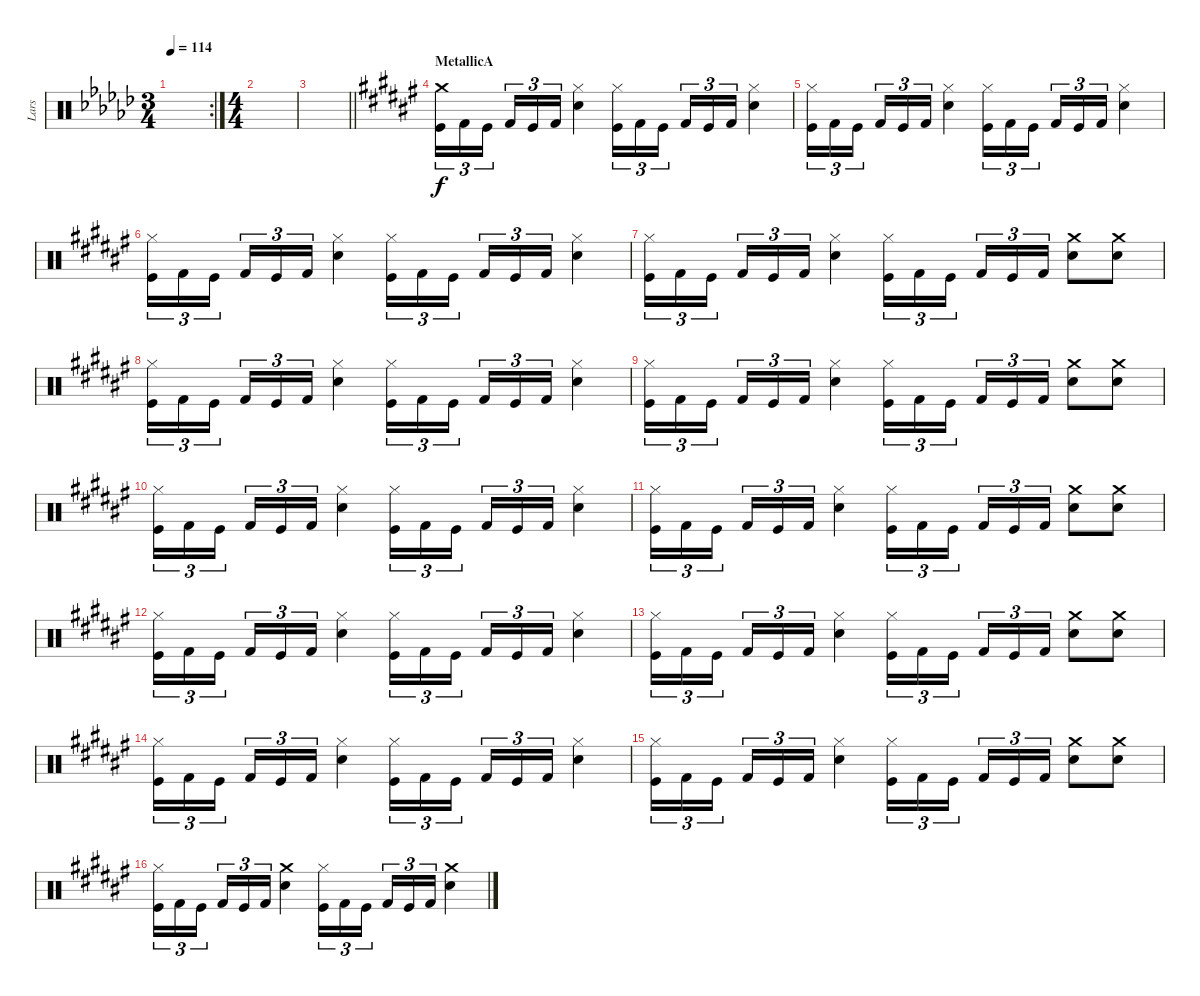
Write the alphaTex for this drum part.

\track ("Lars" "Lars") {instrument percussion}
\staff {score}
\articulation defaults
\rc 2
\ts (3 4)
\tempo 114
\clef neutral
\ks gb
|
\ts (4 4)
|
\barLineRight lightlight
|
\section ("" "MetallicA")
\ks f#
("Crash medium (hit)" "Kick (hit)").16{tu (3 2)} "Kick (hit) 2".16{tu (3 2)} "Kick (hit)".16{tu (3 2) beam splitsecondary} "Kick (hit) 2".16{tu (3 2)} "Kick (hit)".16{tu (3 2)} "Kick (hit) 2".16{tu (3 2)} ("Snare (hit) 2" "Hi-Hat (closed)").4 ("Hi-Hat (closed)" "Kick (hit)").16{tu (3 2)} "Kick (hit) 2".16{tu (3 2)} "Kick (hit)".16{tu (3 2) beam splitsecondary} "Kick (hit) 2".16{tu (3 2)} "Kick (hit)".16{tu (3 2)} "Kick (hit) 2".16{tu (3 2)} ("Snare (hit) 2" "Hi-Hat (closed)").4 |
("Hi-Hat (closed)" "Kick (hit)").16{tu (3 2)} "Kick (hit) 2".16{tu (3 2)} "Kick (hit)".16{tu (3 2) beam splitsecondary} "Kick (hit) 2".16{tu (3 2)} "Kick (hit)".16{tu (3 2)} "Kick (hit) 2".16{tu (3 2)} ("Snare (hit) 2" "Hi-Hat (closed)").4 ("Hi-Hat (closed)" "Kick (hit)").16{tu (3 2)} "Kick (hit) 2".16{tu (3 2)} "Kick (hit)".16{tu (3 2) beam splitsecondary} "Kick (hit) 2".16{tu (3 2)} "Kick (hit)".16{tu (3 2)} "Kick (hit) 2".16{tu (3 2)} ("Snare (hit) 2" "Hi-Hat (closed)").4 |
("Hi-Hat (closed)" "Kick (hit)").16{tu (3 2)} "Kick (hit) 2".16{tu (3 2)} "Kick (hit)".16{tu (3 2) beam splitsecondary} "Kick (hit) 2".16{tu (3 2)} "Kick (hit)".16{tu (3 2)} "Kick (hit) 2".16{tu (3 2)} ("Snare (hit) 2" "Hi-Hat (closed)").4 ("Hi-Hat (closed)" "Kick (hit)").16{tu (3 2)} "Kick (hit) 2".16{tu (3 2)} "Kick (hit)".16{tu (3 2) beam splitsecondary} "Kick (hit) 2".16{tu (3 2)} "Kick (hit)".16{tu (3 2)} "Kick (hit) 2".16{tu (3 2)} ("Snare (hit) 2" "Hi-Hat (closed)").4 |
("Hi-Hat (closed)" "Kick (hit)").16{tu (3 2)} "Kick (hit) 2".16{tu (3 2)} "Kick (hit)".16{tu (3 2) beam splitsecondary} "Kick (hit) 2".16{tu (3 2)} "Kick (hit)".16{tu (3 2)} "Kick (hit) 2".16{tu (3 2)} ("Snare (hit) 2" "Hi-Hat (closed)").4 ("Hi-Hat (closed)" "Kick (hit)").16{tu (3 2)} "Kick (hit) 2".16{tu (3 2)} "Kick (hit)".16{tu (3 2) beam splitsecondary} "Kick (hit) 2".16{tu (3 2)} "Kick (hit)".16{tu (3 2)} "Kick (hit) 2".16{tu (3 2)} ("Snare (hit) 2" "Crash medium (hit)").8 ("Snare (hit) 2" "Crash medium (hit)").8 |
("Hi-Hat (closed)" "Kick (hit)").16{tu (3 2)} "Kick (hit) 2".16{tu (3 2)} "Kick (hit)".16{tu (3 2) beam splitsecondary} "Kick (hit) 2".16{tu (3 2)} "Kick (hit)".16{tu (3 2)} "Kick (hit) 2".16{tu (3 2)} ("Snare (hit) 2" "Hi-Hat (closed)").4 ("Hi-Hat (closed)" "Kick (hit)").16{tu (3 2)} "Kick (hit) 2".16{tu (3 2)} "Kick (hit)".16{tu (3 2) beam splitsecondary} "Kick (hit) 2".16{tu (3 2)} "Kick (hit)".16{tu (3 2)} "Kick (hit) 2".16{tu (3 2)} ("Snare (hit) 2" "Hi-Hat (closed)").4 |
("Hi-Hat (closed)" "Kick (hit)").16{tu (3 2)} "Kick (hit) 2".16{tu (3 2)} "Kick (hit)".16{tu (3 2) beam splitsecondary} "Kick (hit) 2".16{tu (3 2)} "Kick (hit)".16{tu (3 2)} "Kick (hit) 2".16{tu (3 2)} ("Snare (hit) 2" "Hi-Hat (closed)").4 ("Hi-Hat (closed)" "Kick (hit)").16{tu (3 2)} "Kick (hit) 2".16{tu (3 2)} "Kick (hit)".16{tu (3 2) beam splitsecondary} "Kick (hit) 2".16{tu (3 2)} "Kick (hit)".16{tu (3 2)} "Kick (hit) 2".16{tu (3 2)} ("Snare (hit) 2" "Crash medium (hit)").8 ("Snare (hit) 2" "Crash medium (hit)").8 |
("Hi-Hat (closed)" "Kick (hit)").16{tu (3 2)} "Kick (hit) 2".16{tu (3 2)} "Kick (hit)".16{tu (3 2) beam splitsecondary} "Kick (hit) 2".16{tu (3 2)} "Kick (hit)".16{tu (3 2)} "Kick (hit) 2".16{tu (3 2)} ("Snare (hit) 2" "Hi-Hat (closed)").4 ("Hi-Hat (closed)" "Kick (hit)").16{tu (3 2)} "Kick (hit) 2".16{tu (3 2)} "Kick (hit)".16{tu (3 2) beam splitsecondary} "Kick (hit) 2".16{tu (3 2)} "Kick (hit)".16{tu (3 2)} "Kick (hit) 2".16{tu (3 2)} ("Snare (hit) 2" "Hi-Hat (closed)").4 |
("Hi-Hat (closed)" "Kick (hit)").16{tu (3 2)} "Kick (hit) 2".16{tu (3 2)} "Kick (hit)".16{tu (3 2) beam splitsecondary} "Kick (hit) 2".16{tu (3 2)} "Kick (hit)".16{tu (3 2)} "Kick (hit) 2".16{tu (3 2)} ("Snare (hit) 2" "Hi-Hat (closed)").4 ("Hi-Hat (closed)" "Kick (hit)").16{tu (3 2)} "Kick (hit) 2".16{tu (3 2)} "Kick (hit)".16{tu (3 2) beam splitsecondary} "Kick (hit) 2".16{tu (3 2)} "Kick (hit)".16{tu (3 2)} "Kick (hit) 2".16{tu (3 2)} ("Snare (hit) 2" "Crash medium (hit)").8 ("Snare (hit) 2" "Crash medium (hit)").8 |
("Hi-Hat (closed)" "Kick (hit)").16{tu (3 2)} "Kick (hit) 2".16{tu (3 2)} "Kick (hit)".16{tu (3 2) beam splitsecondary} "Kick (hit) 2".16{tu (3 2)} "Kick (hit)".16{tu (3 2)} "Kick (hit) 2".16{tu (3 2)} ("Snare (hit) 2" "Hi-Hat (closed)").4 ("Hi-Hat (closed)" "Kick (hit)").16{tu (3 2)} "Kick (hit) 2".16{tu (3 2)} "Kick (hit)".16{tu (3 2) beam splitsecondary} "Kick (hit) 2".16{tu (3 2)} "Kick (hit)".16{tu (3 2)} "Kick (hit) 2".16{tu (3 2)} ("Snare (hit) 2" "Hi-Hat (closed)").4 |
("Hi-Hat (closed)" "Kick (hit)").16{tu (3 2)} "Kick (hit) 2".16{tu (3 2)} "Kick (hit)".16{tu (3 2) beam splitsecondary} "Kick (hit) 2".16{tu (3 2)} "Kick (hit)".16{tu (3 2)} "Kick (hit) 2".16{tu (3 2)} ("Snare (hit) 2" "Hi-Hat (closed)").4 ("Hi-Hat (closed)" "Kick (hit)").16{tu (3 2)} "Kick (hit) 2".16{tu (3 2)} "Kick (hit)".16{tu (3 2) beam splitsecondary} "Kick (hit) 2".16{tu (3 2)} "Kick (hit)".16{tu (3 2)} "Kick (hit) 2".16{tu (3 2)} ("Snare (hit) 2" "Crash medium (hit)").8 ("Snare (hit) 2" "Crash medium (hit)").8 |
("Hi-Hat (closed)" "Kick (hit)").16{tu (3 2)} "Kick (hit) 2".16{tu (3 2)} "Kick (hit)".16{tu (3 2) beam splitsecondary} "Kick (hit) 2".16{tu (3 2)} "Kick (hit)".16{tu (3 2)} "Kick (hit) 2".16{tu (3 2)} ("Snare (hit) 2" "Hi-Hat (closed)").4 ("Hi-Hat (closed)" "Kick (hit)").16{tu (3 2)} "Kick (hit) 2".16{tu (3 2)} "Kick (hit)".16{tu (3 2) beam splitsecondary} "Kick (hit) 2".16{tu (3 2)} "Kick (hit)".16{tu (3 2)} "Kick (hit) 2".16{tu (3 2)} ("Snare (hit) 2" "Hi-Hat (closed)").4 |
("Hi-Hat (closed)" "Kick (hit)").16{tu (3 2)} "Kick (hit) 2".16{tu (3 2)} "Kick (hit)".16{tu (3 2) beam splitsecondary} "Kick (hit) 2".16{tu (3 2)} "Kick (hit)".16{tu (3 2)} "Kick (hit) 2".16{tu (3 2)} ("Snare (hit) 2" "Hi-Hat (closed)").4 ("Hi-Hat (closed)" "Kick (hit)").16{tu (3 2)} "Kick (hit) 2".16{tu (3 2)} "Kick (hit)".16{tu (3 2) beam splitsecondary} "Kick (hit) 2".16{tu (3 2)} "Kick (hit)".16{tu (3 2)} "Kick (hit) 2".16{tu (3 2)} ("Snare (hit) 2" "Crash medium (hit)").8 ("Snare (hit) 2" "Crash medium (hit)").8 |
("Hi-Hat (closed)" "Kick (hit)").16{tu (3 2)} "Kick (hit) 2".16{tu (3 2)} "Kick (hit)".16{tu (3 2) beam splitsecondary} "Kick (hit) 2".16{tu (3 2)} "Kick (hit)".16{tu (3 2)} "Kick (hit) 2".16{tu (3 2)} ("Crash medium (hit)" "Snare (hit) 2").4 ("Hi-Hat (closed)" "Kick (hit)").16{tu (3 2)} "Kick (hit) 2".16{tu (3 2)} "Kick (hit)".16{tu (3 2) beam splitsecondary} "Kick (hit) 2".16{tu (3 2)} "Kick (hit)".16{tu (3 2)} "Kick (hit) 2".16{tu (3 2)} ("Crash medium (hit)" "Snare (hit) 2").4
